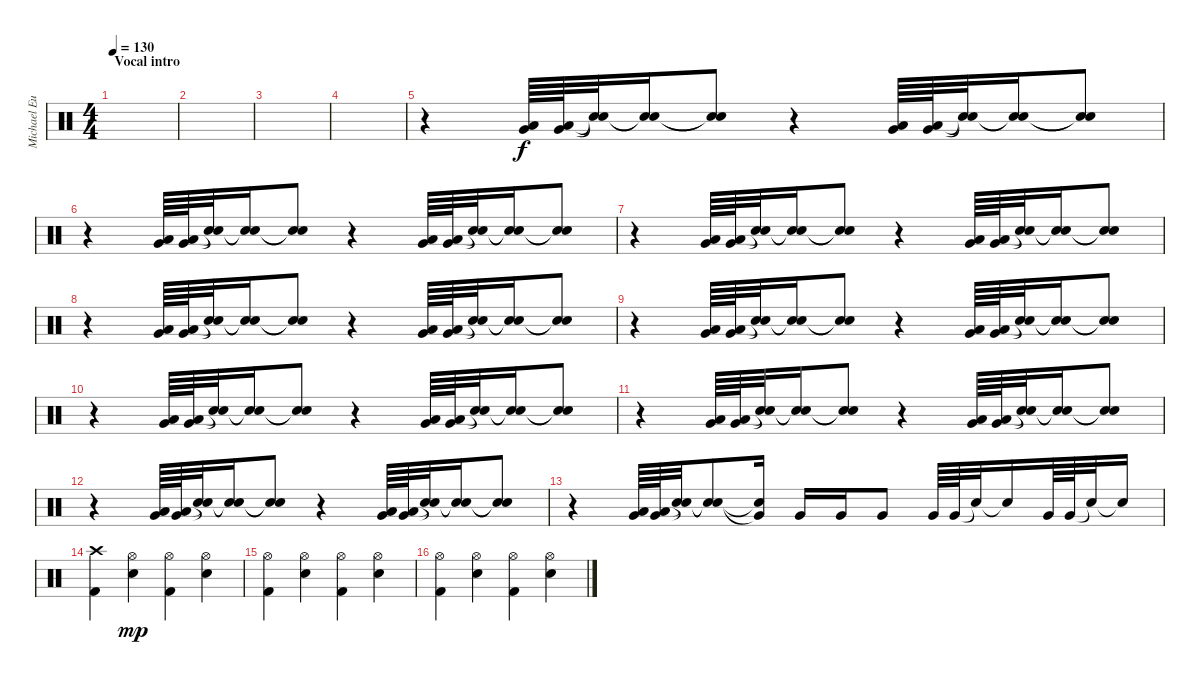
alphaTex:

\track ("Michael Eurich" "Michael Eu") {instrument percussion}
\staff {score}
\articulation defaults
\ts (4 4)
\section ("" "Vocal intro")
\tempo 130
\clef neutral
\ks c
|
|
|
|
r.4 ("Very Low Tom (hit)" "Low Floor Tom (hit)").64 ("Very Low Tom (hit)" "Low Floor Tom (hit)").64 ("Snare (hit)"{t} "Snare (hit)"{t}).32 ("Snare (hit)"{t} "Snare (hit)"{t}).16 ("Snare (hit)"{t} "Snare (hit)"{t}).8 r.4 ("Very Low Tom (hit)" "Low Floor Tom (hit)").64 ("Very Low Tom (hit)" "Low Floor Tom (hit)").64 ("Snare (hit)"{t} "Snare (hit)"{t}).32 ("Snare (hit)"{t} "Snare (hit)"{t}).16 ("Snare (hit)"{t} "Snare (hit)"{t}).8 |
r.4 ("Very Low Tom (hit)" "Low Floor Tom (hit)").64 ("Very Low Tom (hit)" "Low Floor Tom (hit)").64 ("Snare (hit)"{t} "Snare (hit)"{t}).32 ("Snare (hit)"{t} "Snare (hit)"{t}).16 ("Snare (hit)"{t} "Snare (hit)"{t}).8 r.4 ("Very Low Tom (hit)" "Low Floor Tom (hit)").64 ("Very Low Tom (hit)" "Low Floor Tom (hit)").64 ("Snare (hit)"{t} "Snare (hit)"{t}).32 ("Snare (hit)"{t} "Snare (hit)"{t}).16 ("Snare (hit)"{t} "Snare (hit)"{t}).8 |
r.4 ("Very Low Tom (hit)" "Low Floor Tom (hit)").64 ("Very Low Tom (hit)" "Low Floor Tom (hit)").64 ("Snare (hit)"{t} "Snare (hit)"{t}).32 ("Snare (hit)"{t} "Snare (hit)"{t}).16 ("Snare (hit)"{t} "Snare (hit)"{t}).8 r.4 ("Very Low Tom (hit)" "Low Floor Tom (hit)").64 ("Very Low Tom (hit)" "Low Floor Tom (hit)").64 ("Snare (hit)"{t} "Snare (hit)"{t}).32 ("Snare (hit)"{t} "Snare (hit)"{t}).16 ("Snare (hit)"{t} "Snare (hit)"{t}).8 |
r.4 ("Very Low Tom (hit)" "Low Floor Tom (hit)").64 ("Very Low Tom (hit)" "Low Floor Tom (hit)").64 ("Snare (hit)"{t} "Snare (hit)"{t}).32 ("Snare (hit)"{t} "Snare (hit)"{t}).16 ("Snare (hit)"{t} "Snare (hit)"{t}).8 r.4 ("Very Low Tom (hit)" "Low Floor Tom (hit)").64 ("Very Low Tom (hit)" "Low Floor Tom (hit)").64 ("Snare (hit)"{t} "Snare (hit)"{t}).32 ("Snare (hit)"{t} "Snare (hit)"{t}).16 ("Snare (hit)"{t} "Snare (hit)"{t}).8 |
r.4 ("Very Low Tom (hit)" "Low Floor Tom (hit)").64 ("Very Low Tom (hit)" "Low Floor Tom (hit)").64 ("Snare (hit)"{t} "Snare (hit)"{t}).32 ("Snare (hit)"{t} "Snare (hit)"{t}).16 ("Snare (hit)"{t} "Snare (hit)"{t}).8 r.4 ("Very Low Tom (hit)" "Low Floor Tom (hit)").64 ("Very Low Tom (hit)" "Low Floor Tom (hit)").64 ("Snare (hit)"{t} "Snare (hit)"{t}).32 ("Snare (hit)"{t} "Snare (hit)"{t}).16 ("Snare (hit)"{t} "Snare (hit)"{t}).8 |
r.4 ("Very Low Tom (hit)" "Low Floor Tom (hit)").64 ("Very Low Tom (hit)" "Low Floor Tom (hit)").64 ("Snare (hit)"{t} "Snare (hit)"{t}).32 ("Snare (hit)"{t} "Snare (hit)"{t}).16 ("Snare (hit)"{t} "Snare (hit)"{t}).8 r.4 ("Very Low Tom (hit)" "Low Floor Tom (hit)").64 ("Very Low Tom (hit)" "Low Floor Tom (hit)").64 ("Snare (hit)"{t} "Snare (hit)"{t}).32 ("Snare (hit)"{t} "Snare (hit)"{t}).16 ("Snare (hit)"{t} "Snare (hit)"{t}).8 |
r.4 ("Very Low Tom (hit)" "Low Floor Tom (hit)").64 ("Very Low Tom (hit)" "Low Floor Tom (hit)").64 ("Snare (hit)"{t} "Snare (hit)"{t}).32 ("Snare (hit)"{t} "Snare (hit)"{t}).16 ("Snare (hit)"{t} "Snare (hit)"{t}).8 r.4 ("Very Low Tom (hit)" "Low Floor Tom (hit)").64 ("Very Low Tom (hit)" "Low Floor Tom (hit)").64 ("Snare (hit)"{t} "Snare (hit)"{t}).32 ("Snare (hit)"{t} "Snare (hit)"{t}).16 ("Snare (hit)"{t} "Snare (hit)"{t}).8 |
r.4 ("Very Low Tom (hit)" "Low Floor Tom (hit)").64 ("Very Low Tom (hit)" "Low Floor Tom (hit)").64 ("Snare (hit)"{t} "Snare (hit)"{t}).32 ("Snare (hit)"{t} "Snare (hit)"{t}).16 ("Snare (hit)"{t} "Snare (hit)"{t}).8 r.4 ("Very Low Tom (hit)" "Low Floor Tom (hit)").64 ("Very Low Tom (hit)" "Low Floor Tom (hit)").64 ("Snare (hit)"{t} "Snare (hit)"{t}).32 ("Snare (hit)"{t} "Snare (hit)"{t}).16 ("Snare (hit)"{t} "Snare (hit)"{t}).8 |
r.4 ("Very Low Tom (hit)" "Low Floor Tom (hit)").64 ("Very Low Tom (hit)" "Low Floor Tom (hit)").64 ("Snare (hit)"{t} "Snare (hit)"{t}).32 ("Snare (hit)"{t} "Snare (hit)"{t}).8 ("Very Low Tom (hit)"{t} "Snare (hit)"{t}).16 "Very Low Tom (hit)".16 "Very Low Tom (hit)".16 "Very Low Tom (hit)".8 "Very Low Tom (hit)".64 "Very Low Tom (hit)".64 "Snare (hit)"{t}.32 "Snare (hit)"{t}.16 "Very Low Tom (hit)".64 "Very Low Tom (hit)".64 "Snare (hit)"{t}.32 "Snare (hit)"{t}.16 |
("Kick (hit) 2" "Crash high (hit)").4 ("Hi-Hat (open)" "Snare (hit) 2").4{dy mp} ("Kick (hit) 2" "Hi-Hat (open)").4 ("Hi-Hat (open)" "Snare (hit) 2").4 |
("Kick (hit) 2" "Hi-Hat (open)").4 ("Hi-Hat (open)" "Snare (hit) 2").4 ("Kick (hit) 2" "Hi-Hat (open)").4 ("Hi-Hat (open)" "Snare (hit) 2").4 |
("Kick (hit) 2" "Hi-Hat (open)").4 ("Hi-Hat (open)" "Snare (hit) 2").4 ("Kick (hit) 2" "Hi-Hat (open)").4 ("Hi-Hat (open)" "Snare (hit) 2").4
